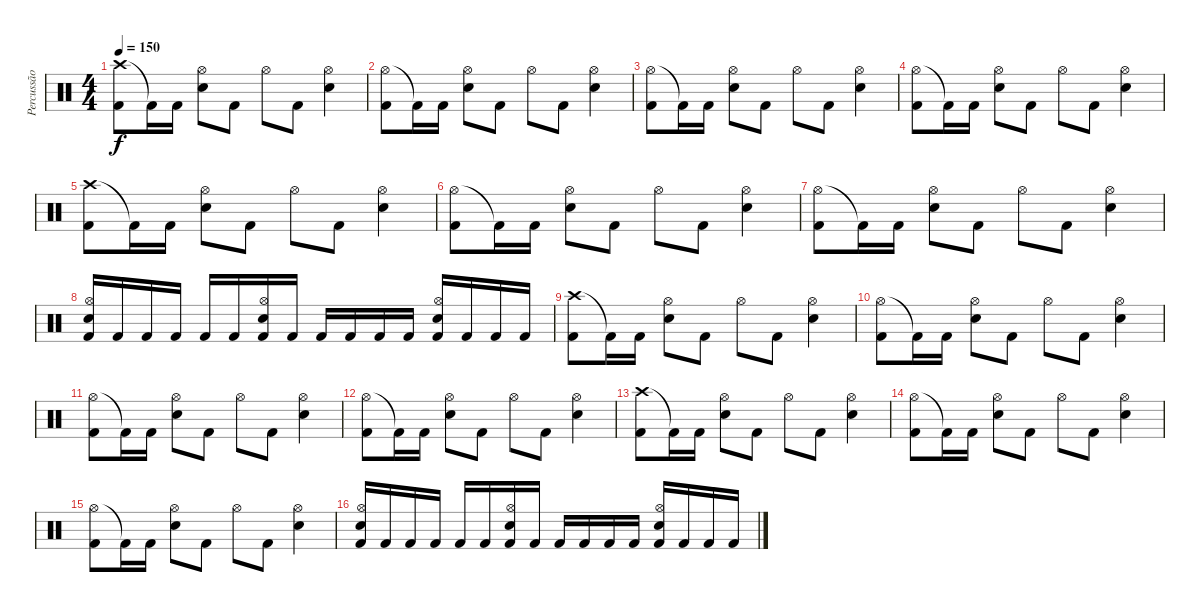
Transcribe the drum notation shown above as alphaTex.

\track ("Percussão" "Percussão") {instrument percussion}
\staff {score}
\articulation defaults
\ts (4 4)
\tempo 150
\clef neutral
\ks c
("Crash high (hit)" "Kick (hit) 2").8{dy f} "Kick (hit) 2"{t}.16 "Kick (hit) 2".16 ("Hi-Hat (open)" "Electric Snare (hit)").8 "Kick (hit) 2".8 "Hi-Hat (open)".8 "Kick (hit) 2".8 ("Hi-Hat (open)" "Electric Snare (hit)").4 |
("Hi-Hat (open)" "Kick (hit) 2").8 "Kick (hit) 2"{t}.16 "Kick (hit) 2".16 ("Hi-Hat (open)" "Electric Snare (hit)").8 "Kick (hit) 2".8 "Hi-Hat (open)".8 "Kick (hit) 2".8 ("Hi-Hat (open)" "Electric Snare (hit)").4 |
("Hi-Hat (open)" "Kick (hit) 2").8 "Kick (hit) 2"{t}.16 "Kick (hit) 2".16 ("Hi-Hat (open)" "Electric Snare (hit)").8 "Kick (hit) 2".8 "Hi-Hat (open)".8 "Kick (hit) 2".8 ("Hi-Hat (open)" "Electric Snare (hit)").4 |
("Hi-Hat (open)" "Kick (hit) 2").8 "Kick (hit) 2"{t}.16 "Kick (hit) 2".16 ("Hi-Hat (open)" "Electric Snare (hit)").8 "Kick (hit) 2".8 "Hi-Hat (open)".8 "Kick (hit) 2".8 ("Hi-Hat (open)" "Electric Snare (hit)").4 |
("Crash high (hit)" "Kick (hit) 2").8 "Kick (hit) 2"{t}.16 "Kick (hit) 2".16 ("Hi-Hat (open)" "Electric Snare (hit)").8 "Kick (hit) 2".8 "Hi-Hat (open)".8 "Kick (hit) 2".8 ("Hi-Hat (open)" "Electric Snare (hit)").4 |
("Hi-Hat (open)" "Kick (hit) 2").8 "Kick (hit) 2"{t}.16 "Kick (hit) 2".16 ("Hi-Hat (open)" "Electric Snare (hit)").8 "Kick (hit) 2".8 "Hi-Hat (open)".8 "Kick (hit) 2".8 ("Hi-Hat (open)" "Electric Snare (hit)").4 |
("Hi-Hat (open)" "Kick (hit) 2").8 "Kick (hit) 2"{t}.16 "Kick (hit) 2".16 ("Hi-Hat (open)" "Electric Snare (hit)").8 "Kick (hit) 2".8 "Hi-Hat (open)".8 "Kick (hit) 2".8 ("Hi-Hat (open)" "Electric Snare (hit)").4 |
("Hi-Hat (open)" "Electric Snare (hit)" "Kick (hit) 2").16 "Kick (hit) 2".16 "Kick (hit) 2".16 "Kick (hit) 2".16 "Kick (hit) 2".16 "Kick (hit) 2".16 ("Hi-Hat (open)" "Electric Snare (hit)" "Kick (hit) 2").16 "Kick (hit) 2".16 "Kick (hit) 2".16 "Kick (hit) 2".16 "Kick (hit) 2".16 "Kick (hit) 2".16 ("Hi-Hat (open)" "Electric Snare (hit)" "Kick (hit) 2").16 "Kick (hit) 2".16 "Kick (hit) 2".16 "Kick (hit) 2".16 |
("Crash high (hit)" "Kick (hit) 2").8 "Kick (hit) 2"{t}.16 "Kick (hit) 2".16 ("Hi-Hat (open)" "Electric Snare (hit)").8 "Kick (hit) 2".8 "Hi-Hat (open)".8 "Kick (hit) 2".8 ("Hi-Hat (open)" "Electric Snare (hit)").4 |
("Hi-Hat (open)" "Kick (hit) 2").8 "Kick (hit) 2"{t}.16 "Kick (hit) 2".16 ("Hi-Hat (open)" "Electric Snare (hit)").8 "Kick (hit) 2".8 "Hi-Hat (open)".8 "Kick (hit) 2".8 ("Hi-Hat (open)" "Electric Snare (hit)").4 |
("Hi-Hat (open)" "Kick (hit) 2").8 "Kick (hit) 2"{t}.16 "Kick (hit) 2".16 ("Hi-Hat (open)" "Electric Snare (hit)").8 "Kick (hit) 2".8 "Hi-Hat (open)".8 "Kick (hit) 2".8 ("Hi-Hat (open)" "Electric Snare (hit)").4 |
("Hi-Hat (open)" "Kick (hit) 2").8 "Kick (hit) 2"{t}.16 "Kick (hit) 2".16 ("Hi-Hat (open)" "Electric Snare (hit)").8 "Kick (hit) 2".8 "Hi-Hat (open)".8 "Kick (hit) 2".8 ("Hi-Hat (open)" "Electric Snare (hit)").4 |
("Crash high (hit)" "Kick (hit) 2").8 "Kick (hit) 2"{t}.16 "Kick (hit) 2".16 ("Hi-Hat (open)" "Electric Snare (hit)").8 "Kick (hit) 2".8 "Hi-Hat (open)".8 "Kick (hit) 2".8 ("Hi-Hat (open)" "Electric Snare (hit)").4 |
("Hi-Hat (open)" "Kick (hit) 2").8 "Kick (hit) 2"{t}.16 "Kick (hit) 2".16 ("Hi-Hat (open)" "Electric Snare (hit)").8 "Kick (hit) 2".8 "Hi-Hat (open)".8 "Kick (hit) 2".8 ("Hi-Hat (open)" "Electric Snare (hit)").4 |
("Hi-Hat (open)" "Kick (hit) 2").8 "Kick (hit) 2"{t}.16 "Kick (hit) 2".16 ("Hi-Hat (open)" "Electric Snare (hit)").8 "Kick (hit) 2".8 "Hi-Hat (open)".8 "Kick (hit) 2".8 ("Hi-Hat (open)" "Electric Snare (hit)").4 |
("Hi-Hat (open)" "Electric Snare (hit)" "Kick (hit) 2").16 "Kick (hit) 2".16 "Kick (hit) 2".16 "Kick (hit) 2".16 "Kick (hit) 2".16 "Kick (hit) 2".16 ("Hi-Hat (open)" "Electric Snare (hit)" "Kick (hit) 2").16 "Kick (hit) 2".16 "Kick (hit) 2".16 "Kick (hit) 2".16 "Kick (hit) 2".16 "Kick (hit) 2".16 ("Hi-Hat (open)" "Electric Snare (hit)" "Kick (hit) 2").16 "Kick (hit) 2".16 "Kick (hit) 2".16 "Kick (hit) 2".16
